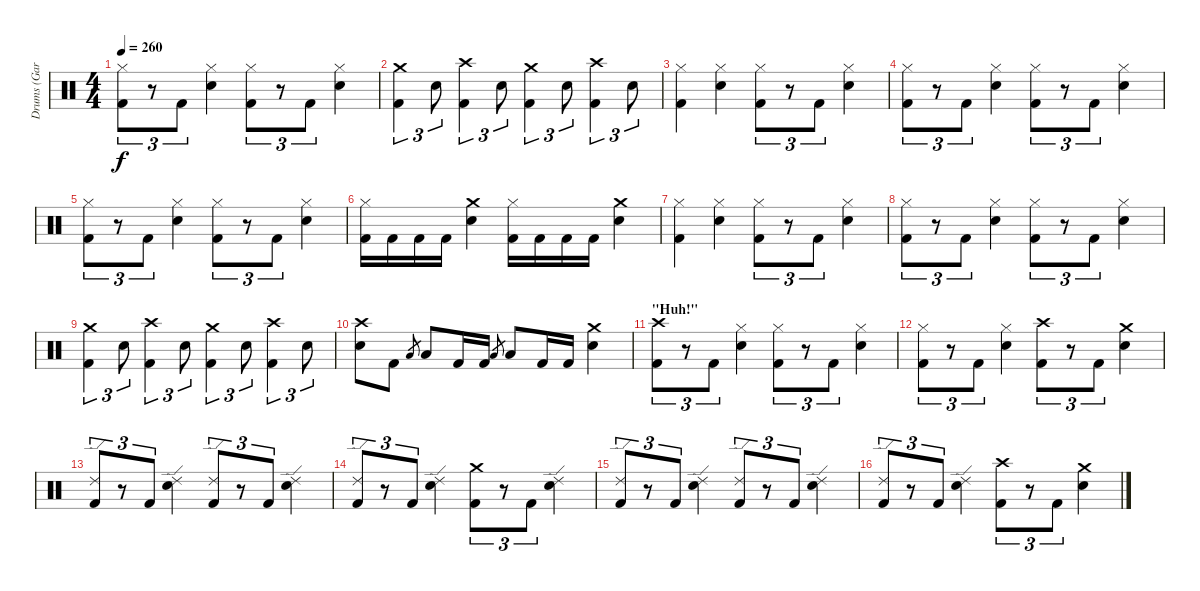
\track ("Drums (Gar Samuelson)" "Drums (Gar") {instrument percussion}
\staff {score}
\articulation defaults
\ts (4 4)
\tempo 260
\clef neutral
\ks c
("Hi-Hat (closed)" "Kick (hit) 2").8{tu (3 2) dy f} r.8{tu (3 2)} "Kick (hit) 2".8{tu (3 2)} ("Hi-Hat (closed)" "Snare (hit) 2").4 ("Hi-Hat (closed)" "Kick (hit) 2").8{tu (3 2)} r.8{tu (3 2)} "Kick (hit) 2".8{tu (3 2)} ("Hi-Hat (closed)" "Snare (hit) 2").4 |
("Crash medium (hit)" "Kick (hit) 2").4{tu (3 2)} "Snare (hit) 2".8{tu (3 2)} ("Crash high (hit)" "Kick (hit) 2").4{tu (3 2)} "Snare (hit) 2".8{tu (3 2)} ("Crash medium (hit)" "Kick (hit) 2").4{tu (3 2)} "Snare (hit) 2".8{tu (3 2)} ("Crash high (hit)" "Kick (hit) 2").4{tu (3 2)} "Snare (hit) 2".8{tu (3 2)} |
("Hi-Hat (closed)" "Kick (hit) 2").4 ("Hi-Hat (closed)" "Snare (hit) 2").4 ("Hi-Hat (closed)" "Kick (hit) 2").8{tu (3 2)} r.8{tu (3 2)} "Kick (hit) 2".8{tu (3 2)} ("Hi-Hat (closed)" "Snare (hit) 2").4 |
("Hi-Hat (closed)" "Kick (hit) 2").8{tu (3 2)} r.8{tu (3 2)} "Kick (hit) 2".8{tu (3 2)} ("Hi-Hat (closed)" "Snare (hit) 2").4 ("Hi-Hat (closed)" "Kick (hit) 2").8{tu (3 2)} r.8{tu (3 2)} "Kick (hit) 2".8{tu (3 2)} ("Hi-Hat (closed)" "Snare (hit) 2").4 |
("Hi-Hat (closed)" "Kick (hit) 2").8{tu (3 2)} r.8{tu (3 2)} "Kick (hit) 2".8{tu (3 2)} ("Hi-Hat (closed)" "Snare (hit) 2").4 ("Hi-Hat (closed)" "Kick (hit) 2").8{tu (3 2)} r.8{tu (3 2)} "Kick (hit) 2".8{tu (3 2)} ("Hi-Hat (closed)" "Snare (hit) 2").4 |
("Hi-Hat (closed)" "Kick (hit) 2").16 "Kick (hit) 2".16 "Kick (hit) 2".16 "Kick (hit) 2".16 ("Crash medium (hit)" "Snare (hit) 2").4 ("Hi-Hat (closed)" "Kick (hit) 2").16 "Kick (hit) 2".16 "Kick (hit) 2".16 "Kick (hit) 2".16 ("Crash medium (hit)" "Snare (hit) 2").4 |
("Hi-Hat (closed)" "Kick (hit) 2").4 ("Hi-Hat (closed)" "Snare (hit) 2").4 ("Hi-Hat (closed)" "Kick (hit) 2").8{tu (3 2)} r.8{tu (3 2)} "Kick (hit) 2".8{tu (3 2)} ("Hi-Hat (closed)" "Snare (hit) 2").4 |
("Hi-Hat (closed)" "Kick (hit) 2").8{tu (3 2)} r.8{tu (3 2)} "Kick (hit) 2".8{tu (3 2)} ("Hi-Hat (closed)" "Snare (hit) 2").4 ("Hi-Hat (closed)" "Kick (hit) 2").8{tu (3 2)} r.8{tu (3 2)} "Kick (hit) 2".8{tu (3 2)} ("Hi-Hat (closed)" "Snare (hit) 2").4 |
("Crash medium (hit)" "Kick (hit) 2").4{tu (3 2)} "Snare (hit) 2".8{tu (3 2)} ("Crash high (hit)" "Kick (hit) 2").4{tu (3 2)} "Snare (hit) 2".8{tu (3 2)} ("Crash medium (hit)" "Kick (hit) 2").4{tu (3 2)} "Snare (hit) 2".8{tu (3 2)} ("Crash high (hit)" "Kick (hit) 2").4{tu (3 2)} "Snare (hit) 2".8{tu (3 2)} |
("Crash high (hit)" "Snare (hit) 2").8 "Kick (hit) 2".8 "Low Tom (hit)".8{gr} "Low Tom (hit)".8 "Kick (hit) 2".16 "Kick (hit) 2".16 "Low Floor Tom (hit)".8{gr} "Low Floor Tom (hit)".8 "Kick (hit) 2".16 "Kick (hit) 2".16 ("Crash medium (hit)" "Snare (hit) 2").4 |
\section ("" "\"Huh!\"")
("Crash high (hit)" "Kick (hit) 2").8{tu (3 2)} r.8{tu (3 2)} "Kick (hit) 2".8{tu (3 2)} ("Hi-Hat (closed)" "Snare (hit) 2").4 ("Hi-Hat (closed)" "Kick (hit) 2").8{tu (3 2)} r.8{tu (3 2)} "Kick (hit) 2".8{tu (3 2)} ("Hi-Hat (closed)" "Snare (hit) 2").4 |
("Hi-Hat (closed)" "Kick (hit) 2").8{tu (3 2)} r.8{tu (3 2)} "Kick (hit) 2".8{tu (3 2)} ("Hi-Hat (closed)" "Snare (hit) 2").4 ("Crash high (hit)" "Kick (hit) 2").8{tu (3 2)} r.8{tu (3 2)} "Kick (hit) 2".8{tu (3 2)} ("Crash medium (hit)" "Snare (hit) 2").4 |
("Ride (edge) 2" "Kick (hit) 2").8{tu (3 2)} r.8{tu (3 2)} "Kick (hit) 2".8{tu (3 2)} ("Ride (edge) 2" "Snare (hit) 2").4 ("Ride (edge) 2" "Kick (hit) 2").8{tu (3 2)} r.8{tu (3 2)} "Kick (hit) 2".8{tu (3 2)} ("Ride (edge) 2" "Snare (hit) 2").4 |
("Ride (edge) 2" "Kick (hit) 2").8{tu (3 2)} r.8{tu (3 2)} "Kick (hit) 2".8{tu (3 2)} ("Ride (edge) 2" "Snare (hit) 2").4 ("Crash medium (hit)" "Kick (hit) 2").8{tu (3 2)} r.8{tu (3 2)} "Kick (hit) 2".8{tu (3 2)} ("Ride (edge) 2" "Snare (hit) 2").4 |
("Ride (edge) 2" "Kick (hit) 2").8{tu (3 2)} r.8{tu (3 2)} "Kick (hit) 2".8{tu (3 2)} ("Ride (edge) 2" "Snare (hit) 2").4 ("Ride (edge) 2" "Kick (hit) 2").8{tu (3 2)} r.8{tu (3 2)} "Kick (hit) 2".8{tu (3 2)} ("Ride (edge) 2" "Snare (hit) 2").4 |
("Ride (edge) 2" "Kick (hit) 2").8{tu (3 2)} r.8{tu (3 2)} "Kick (hit) 2".8{tu (3 2)} ("Ride (edge) 2" "Snare (hit) 2").4 ("Crash high (hit)" "Kick (hit) 2").8{tu (3 2)} r.8{tu (3 2)} "Kick (hit) 2".8{tu (3 2)} ("Crash medium (hit)" "Snare (hit) 2").4
